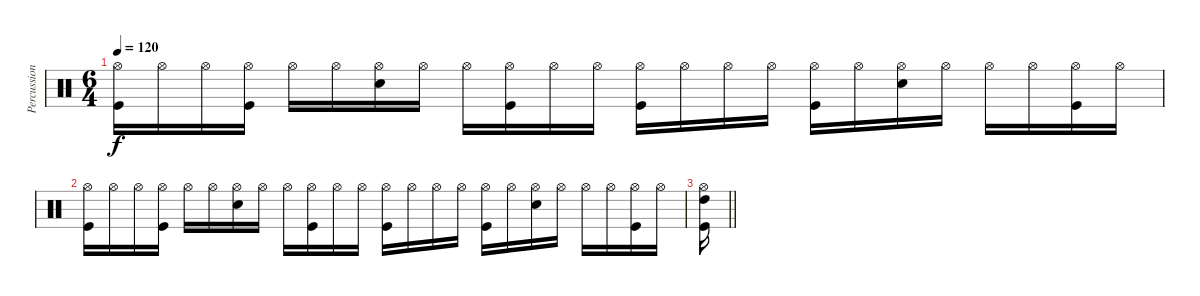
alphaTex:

\track ("Percussion" "Percussion") {instrument percussion}
\staff {score}
\articulation defaults
\ts (6 4)
\tempo 120
\clef neutral
\ks c
("Hi-Hat (open)" "Kick (hit)").16{dy f} "Hi-Hat (open)".16 "Hi-Hat (open)".16 ("Hi-Hat (open)" "Kick (hit)").16 "Hi-Hat (open)".16 "Hi-Hat (open)".16 ("Hi-Hat (open)" "Snare (hit) 2").16 "Hi-Hat (open)".16 "Hi-Hat (open)".16 ("Hi-Hat (open)" "Kick (hit)").16 "Hi-Hat (open)".16 "Hi-Hat (open)".16 ("Hi-Hat (open)" "Kick (hit)").16 "Hi-Hat (open)".16 "Hi-Hat (open)".16 "Hi-Hat (open)".16 ("Hi-Hat (open)" "Kick (hit)").16 "Hi-Hat (open)".16 ("Hi-Hat (open)" "Snare (hit) 2").16 "Hi-Hat (open)".16 "Hi-Hat (open)".16 "Hi-Hat (open)".16 ("Hi-Hat (open)" "Kick (hit)").16 "Hi-Hat (open)".16 |
("Hi-Hat (open)" "Kick (hit)").16 "Hi-Hat (open)".16 "Hi-Hat (open)".16 ("Hi-Hat (open)" "Kick (hit)").16 "Hi-Hat (open)".16 "Hi-Hat (open)".16 ("Hi-Hat (open)" "Snare (hit) 2").16 "Hi-Hat (open)".16 "Hi-Hat (open)".16 ("Hi-Hat (open)" "Kick (hit)").16 "Hi-Hat (open)".16 "Hi-Hat (open)".16 ("Hi-Hat (open)" "Kick (hit)").16 "Hi-Hat (open)".16 "Hi-Hat (open)".16 "Hi-Hat (open)".16 ("Hi-Hat (open)" "Kick (hit)").16 "Hi-Hat (open)".16 ("Hi-Hat (open)" "Snare (hit) 2").16 "Hi-Hat (open)".16 "Hi-Hat (open)".16 "Hi-Hat (open)".16 ("Hi-Hat (open)" "Kick (hit)").16 "Hi-Hat (open)".16 |
\barLineRight lightlight
("Hi-Hat (open)" "High Tom (hit)" "Kick (hit)").16
